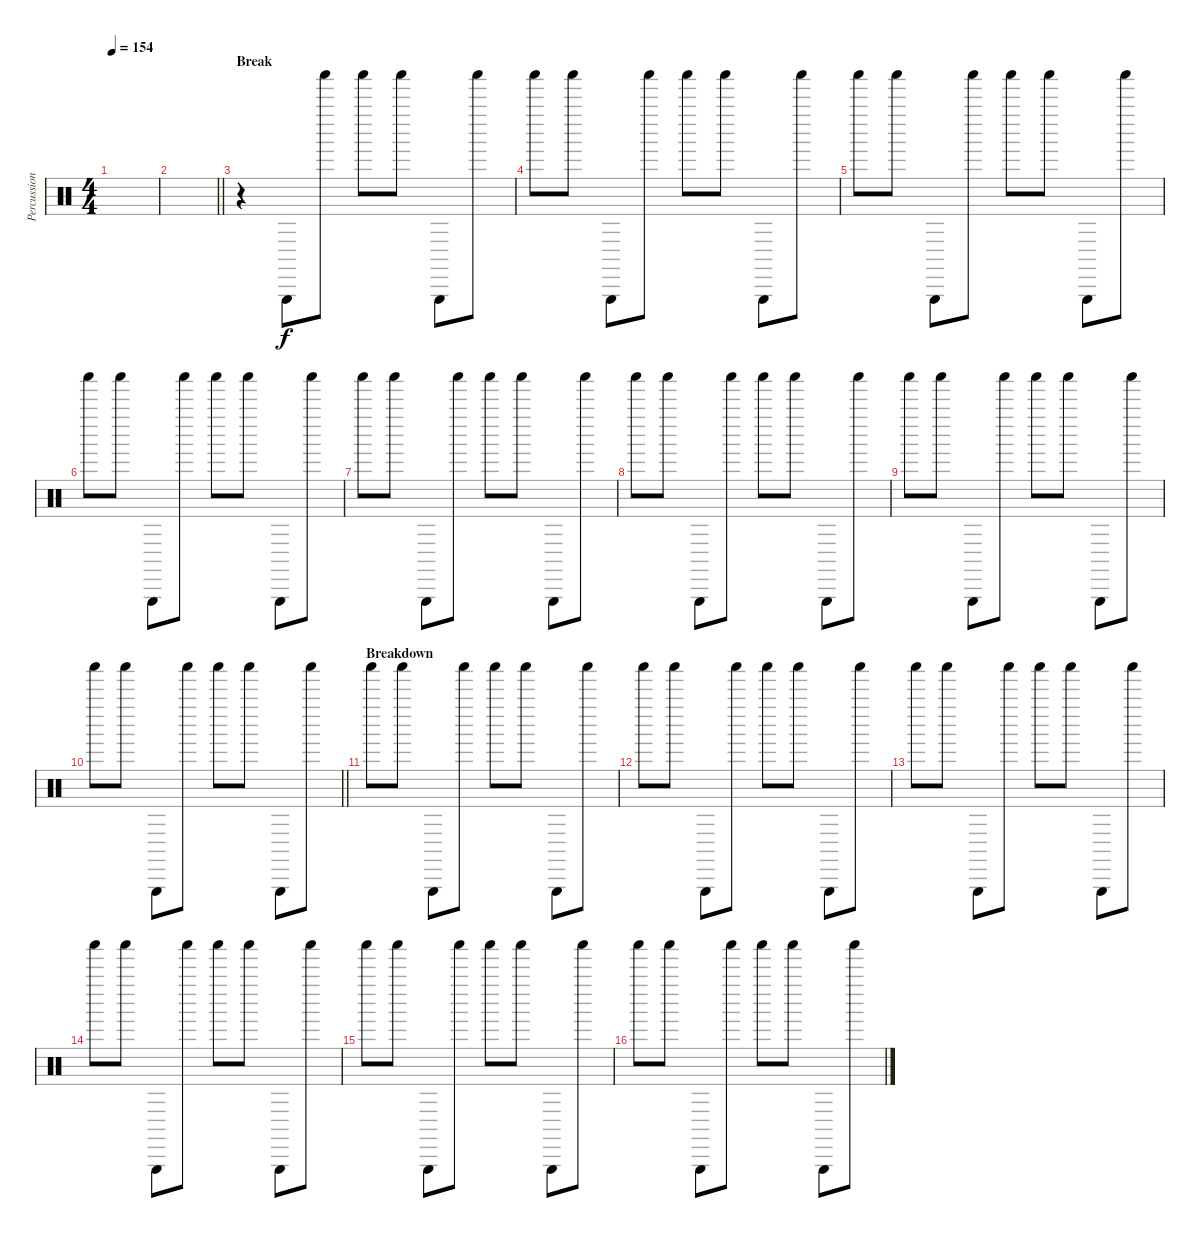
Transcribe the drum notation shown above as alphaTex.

\track ("Percussion (Brandon Saller)" "Percussion") {instrument percussion}
\staff {score}
\articulation defaults
\ts (4 4)
\tempo 154
\clef neutral
\ks c
|
\barLineRight lightlight
|
\section ("" "Break")
r.4 "Triangle (hit)".8 "Shaker (hit)".8 "Shaker (hit)".8 "Shaker (hit)".8 "Triangle (hit)".8 "Shaker (hit)".8 |
"Shaker (hit)".8 "Shaker (hit)".8 "Triangle (hit)".8 "Shaker (hit)".8 "Shaker (hit)".8 "Shaker (hit)".8 "Triangle (hit)".8 "Shaker (hit)".8 |
"Shaker (hit)".8 "Shaker (hit)".8 "Triangle (hit)".8 "Shaker (hit)".8 "Shaker (hit)".8 "Shaker (hit)".8 "Triangle (hit)".8 "Shaker (hit)".8 |
"Shaker (hit)".8 "Shaker (hit)".8 "Triangle (hit)".8 "Shaker (hit)".8 "Shaker (hit)".8 "Shaker (hit)".8 "Triangle (hit)".8 "Shaker (hit)".8 |
"Shaker (hit)".8 "Shaker (hit)".8 "Triangle (hit)".8 "Shaker (hit)".8 "Shaker (hit)".8 "Shaker (hit)".8 "Triangle (hit)".8 "Shaker (hit)".8 |
"Shaker (hit)".8 "Shaker (hit)".8 "Triangle (hit)".8 "Shaker (hit)".8 "Shaker (hit)".8 "Shaker (hit)".8 "Triangle (hit)".8 "Shaker (hit)".8 |
"Shaker (hit)".8 "Shaker (hit)".8 "Triangle (hit)".8 "Shaker (hit)".8 "Shaker (hit)".8 "Shaker (hit)".8 "Triangle (hit)".8 "Shaker (hit)".8 |
\barLineRight lightlight "Shaker (hit)".8 "Shaker (hit)".8 "Triangle (hit)".8 "Shaker (hit)".8 "Shaker (hit)".8 "Shaker (hit)".8 "Triangle (hit)".8 "Shaker (hit)".8
|
\section ("" "Breakdown")
"Shaker (hit)".8 "Shaker (hit)".8 "Triangle (hit)".8 "Shaker (hit)".8 "Shaker (hit)".8 "Shaker (hit)".8 "Triangle (hit)".8 "Shaker (hit)".8 |
"Shaker (hit)".8 "Shaker (hit)".8 "Triangle (hit)".8 "Shaker (hit)".8 "Shaker (hit)".8 "Shaker (hit)".8 "Triangle (hit)".8 "Shaker (hit)".8 |
"Shaker (hit)".8 "Shaker (hit)".8 "Triangle (hit)".8 "Shaker (hit)".8 "Shaker (hit)".8 "Shaker (hit)".8 "Triangle (hit)".8 "Shaker (hit)".8 |
"Shaker (hit)".8 "Shaker (hit)".8 "Triangle (hit)".8 "Shaker (hit)".8 "Shaker (hit)".8 "Shaker (hit)".8 "Triangle (hit)".8 "Shaker (hit)".8 |
"Shaker (hit)".8 "Shaker (hit)".8 "Triangle (hit)".8 "Shaker (hit)".8 "Shaker (hit)".8 "Shaker (hit)".8 "Triangle (hit)".8 "Shaker (hit)".8 |
"Shaker (hit)".8 "Shaker (hit)".8 "Triangle (hit)".8 "Shaker (hit)".8 "Shaker (hit)".8 "Shaker (hit)".8 "Triangle (hit)".8 "Shaker (hit)".8
